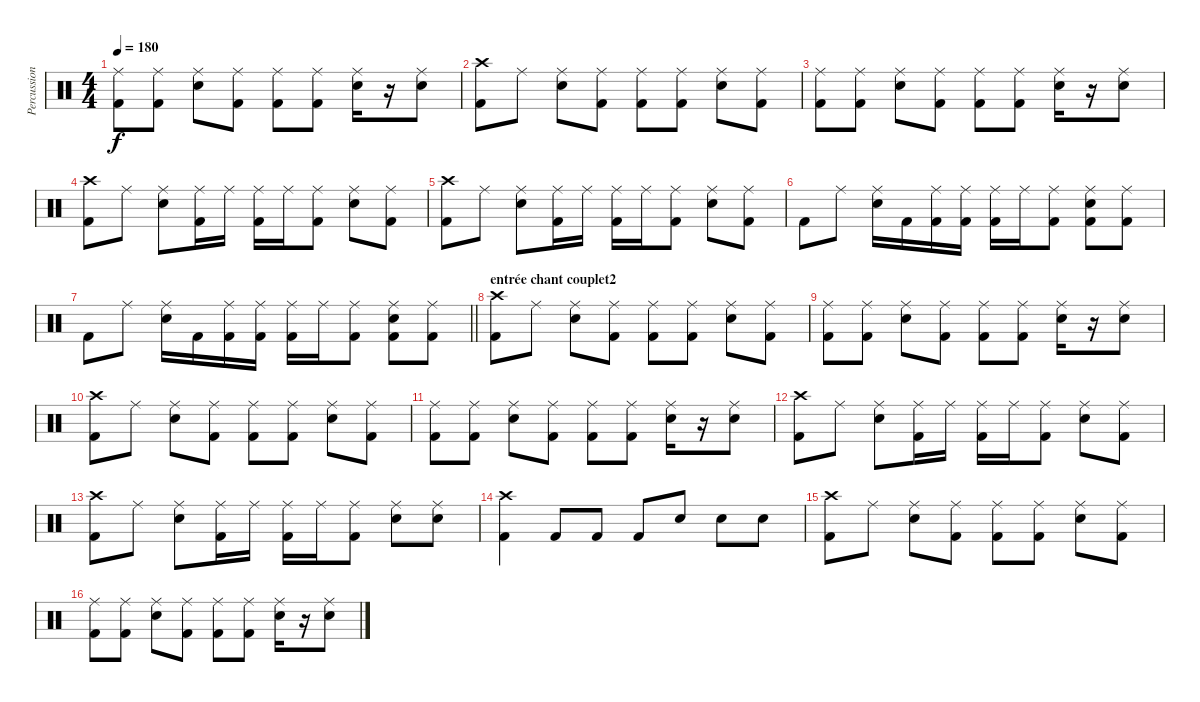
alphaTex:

\track ("Percussions" "Percussion") {instrument percussion}
\staff {score}
\articulation defaults
\ts (4 4)
\tempo 180
\clef neutral
\ks c
("Ride (middle)" "Kick (hit) 2").8{dy f} ("Ride (middle)" "Kick (hit) 2").8 ("Ride (middle)" "Snare (hit) 2").8 ("Ride (middle)" "Kick (hit) 2").8 ("Ride (middle)" "Kick (hit) 2").8 ("Ride (middle)" "Kick (hit) 2").8 ("Ride (middle)" "Snare (hit) 2").16 r.16 ("Ride (middle)" "Snare (hit) 2").8 |
("Crash high (hit)" "Kick (hit) 2").8 "Ride (middle)".8 ("Ride (middle)" "Snare (hit) 2").8 ("Ride (middle)" "Kick (hit) 2").8 ("Ride (middle)" "Kick (hit) 2").8 ("Ride (middle)" "Kick (hit) 2").8 ("Ride (middle)" "Snare (hit) 2").8 ("Ride (middle)" "Kick (hit) 2").8 |
("Ride (middle)" "Kick (hit) 2").8 ("Ride (middle)" "Kick (hit) 2").8 ("Ride (middle)" "Snare (hit) 2").8 ("Ride (middle)" "Kick (hit) 2").8 ("Ride (middle)" "Kick (hit) 2").8 ("Ride (middle)" "Kick (hit) 2").8 ("Ride (middle)" "Snare (hit) 2").16 r.16 ("Ride (middle)" "Snare (hit) 2").8 |
("Crash high (hit)" "Kick (hit) 2").8 "Ride (middle)".8 ("Ride (middle)" "Snare (hit) 2").8 ("Ride (middle)" "Kick (hit) 2").16 "Ride (middle)".16 ("Ride (middle)" "Kick (hit) 2").16 "Ride (middle)".16 ("Ride (middle)" "Kick (hit) 2").8 ("Ride (middle)" "Snare (hit) 2").8 ("Ride (middle)" "Kick (hit) 2").8 |
("Crash high (hit)" "Kick (hit) 2").8 "Ride (middle)".8 ("Ride (middle)" "Snare (hit) 2").8 ("Ride (middle)" "Kick (hit) 2").16 "Ride (middle)".16 ("Ride (middle)" "Kick (hit) 2").16 "Ride (middle)".16 ("Ride (middle)" "Kick (hit) 2").8 ("Ride (middle)" "Snare (hit) 2").8 ("Ride (middle)" "Kick (hit) 2").8 |
"Kick (hit) 2".8 "Ride (middle)".8 ("Ride (middle)" "Snare (hit) 2").16 "Kick (hit) 2".16 ("Ride (middle)" "Kick (hit) 2").16 ("Ride (middle)" "Kick (hit) 2").16 ("Ride (middle)" "Kick (hit) 2").16 "Ride (middle)".16 ("Ride (middle)" "Kick (hit) 2").8 ("Ride (middle)" "Snare (hit) 2" "Kick (hit) 2").8 ("Ride (middle)" "Kick (hit) 2").8 |
\barLineRight lightlight "Kick (hit) 2".8 "Ride (middle)".8
("Ride (middle)" "Snare (hit) 2").16 "Kick (hit) 2".16 ("Ride (middle)" "Kick (hit) 2").16 ("Ride (middle)" "Kick (hit) 2").16 ("Ride (middle)" "Kick (hit) 2").16 "Ride (middle)".16 ("Ride (middle)" "Kick (hit) 2").8 ("Ride (middle)" "Snare (hit) 2" "Kick (hit) 2").8 ("Ride (middle)" "Kick (hit) 2").8 |
\section ("" "entrée chant couplet2")
("Crash high (hit)" "Kick (hit) 2").8 "Ride (middle)".8 ("Ride (middle)" "Snare (hit) 2").8 ("Ride (middle)" "Kick (hit) 2").8 ("Ride (middle)" "Kick (hit) 2").8 ("Ride (middle)" "Kick (hit) 2").8 ("Ride (middle)" "Snare (hit) 2").8 ("Ride (middle)" "Kick (hit) 2").8 |
("Ride (middle)" "Kick (hit) 2").8 ("Ride (middle)" "Kick (hit) 2").8 ("Ride (middle)" "Snare (hit) 2").8 ("Ride (middle)" "Kick (hit) 2").8 ("Ride (middle)" "Kick (hit) 2").8 ("Ride (middle)" "Kick (hit) 2").8 ("Ride (middle)" "Snare (hit) 2").16 r.16 ("Ride (middle)" "Snare (hit) 2").8 |
("Crash high (hit)" "Kick (hit) 2").8 "Ride (middle)".8 ("Ride (middle)" "Snare (hit) 2").8 ("Ride (middle)" "Kick (hit) 2").8 ("Ride (middle)" "Kick (hit) 2").8 ("Ride (middle)" "Kick (hit) 2").8 ("Ride (middle)" "Snare (hit) 2").8 ("Ride (middle)" "Kick (hit) 2").8 |
("Ride (middle)" "Kick (hit) 2").8 ("Ride (middle)" "Kick (hit) 2").8 ("Ride (middle)" "Snare (hit) 2").8 ("Ride (middle)" "Kick (hit) 2").8 ("Ride (middle)" "Kick (hit) 2").8 ("Ride (middle)" "Kick (hit) 2").8 ("Ride (middle)" "Snare (hit) 2").16 r.16 ("Ride (middle)" "Snare (hit) 2").8 |
("Crash high (hit)" "Kick (hit) 2").8 "Ride (middle)".8 ("Ride (middle)" "Snare (hit) 2").8 ("Ride (middle)" "Kick (hit) 2").16 "Ride (middle)".16 ("Ride (middle)" "Kick (hit) 2").16 "Ride (middle)".16 ("Ride (middle)" "Kick (hit) 2").8 ("Ride (middle)" "Snare (hit) 2").8 ("Ride (middle)" "Kick (hit) 2").8 |
("Crash high (hit)" "Kick (hit) 2").8 "Ride (middle)".8 ("Ride (middle)" "Snare (hit) 2").8 ("Ride (middle)" "Kick (hit) 2").16 "Ride (middle)".16 ("Ride (middle)" "Kick (hit) 2").16 "Ride (middle)".16 ("Ride (middle)" "Kick (hit) 2").8 ("Ride (middle)" "Snare (hit) 2").8 ("Ride (middle)" "Snare (hit) 2").8 |
("Crash high (hit)" "Kick (hit) 2").4 "Kick (hit) 2".8 "Kick (hit) 2".8 "Kick (hit) 2".8 "Snare (hit) 2".8 "Snare (hit) 2".8 "Snare (hit) 2".8 |
("Crash high (hit)" "Kick (hit) 2").8 "Ride (middle)".8 ("Ride (middle)" "Snare (hit) 2").8 ("Ride (middle)" "Kick (hit) 2").8 ("Ride (middle)" "Kick (hit) 2").8 ("Ride (middle)" "Kick (hit) 2").8 ("Ride (middle)" "Snare (hit) 2").8 ("Ride (middle)" "Kick (hit) 2").8 |
("Ride (middle)" "Kick (hit) 2").8 ("Ride (middle)" "Kick (hit) 2").8 ("Ride (middle)" "Snare (hit) 2").8 ("Ride (middle)" "Kick (hit) 2").8 ("Ride (middle)" "Kick (hit) 2").8 ("Ride (middle)" "Kick (hit) 2").8 ("Ride (middle)" "Snare (hit) 2").16 r.16 ("Ride (middle)" "Snare (hit) 2").8
